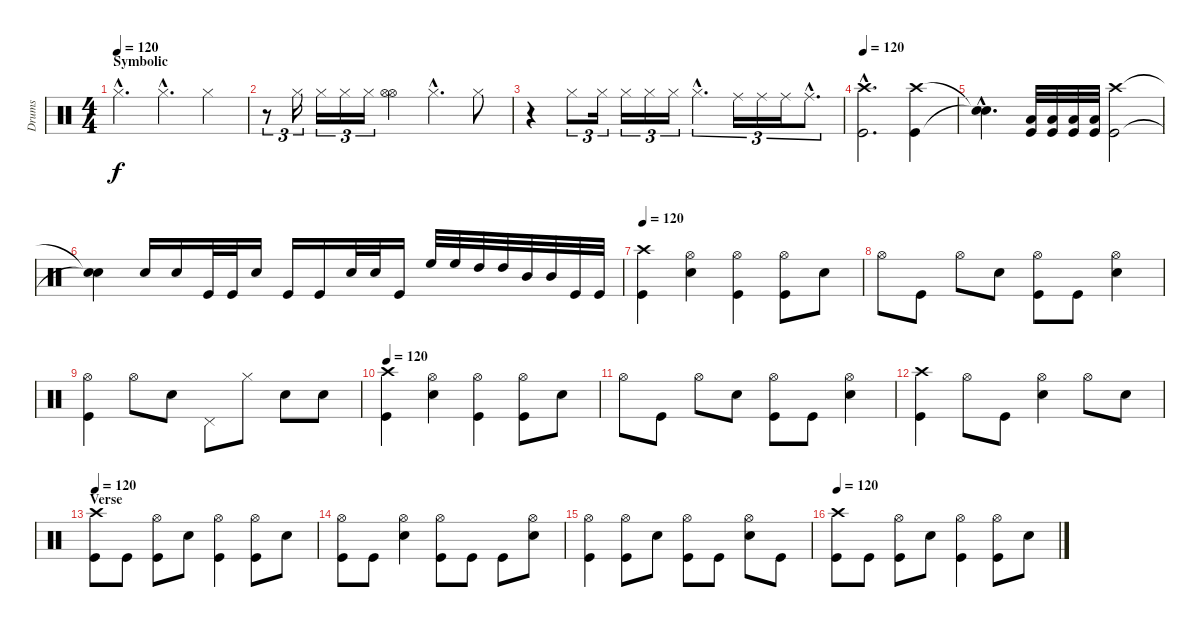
\track ("Drums" "Drums") {instrument percussion}
\staff {score}
\articulation defaults
\ts (4 4)
\section ("" "Symbolic")
\tempo 120
\clef neutral
\ks c "Hi-Hat (closed)"{hac}.4{d dy f} "Hi-Hat (closed)"{hac}.4{d} "Hi-Hat (closed)".4
|
r.8{tu (3 2)} "Hi-Hat (closed)".16{tu (3 2)} "Hi-Hat (closed)".16{tu (3 2)} "Hi-Hat (closed)".16{tu (3 2)} "Hi-Hat (closed)".16{tu (3 2)} ("Hi-Hat (open)" "Hi-Hat (open)").4 "Hi-Hat (closed)"{hac}.4{d} "Hi-Hat (closed)".8 |
r.4 "Hi-Hat (closed)".8{tu (3 2)} "Hi-Hat (closed)".16{tu (3 2)} "Hi-Hat (closed)".16{tu (3 2)} "Hi-Hat (closed)".16{tu (3 2)} "Hi-Hat (closed)".16{tu (3 2)} "Hi-Hat (closed)"{hac}.4{d tu (3 2)} "Ride (middle)".16{tu (3 2)} "Ride (middle)".16{tu (3 2)} "Ride (middle)".16{tu (3 2)} "Ride (middle)"{hac}.8{d tu (3 2)} |
\tempo 120
("Crash high (hit)"{hac} "Kick (hit)"{hac}).2{d} ("Crash high (hit)" "Kick (hit)").4 |
("Snare (hit)"{hac t} "Snare (hit)"{hac t}).4{d} ("Low Floor Tom (hit)" "Kick (hit)").32 ("Low Floor Tom (hit)" "Kick (hit)").32 ("Low Floor Tom (hit)" "Kick (hit)").32 ("Low Floor Tom (hit)" "Kick (hit)").32 ("Crash high (hit)" "Kick (hit)").2 |
("Snare (hit)"{t} "Snare (hit)"{t}).4 "Snare (hit) 2".16 "Snare (hit) 2".16 "Kick (hit)".32 "Kick (hit)".32 "Snare (hit) 2".16 "Kick (hit)".16 "Kick (hit)".16 "Snare (hit) 2".32 "Snare (hit) 2".32 "Kick (hit)".16 "High Floor Tom (hit)".32 "High Floor Tom (hit)".32 "High Tom (hit)".32 "High Tom (hit)".32 "Mid Tom (hit)".32 "Mid Tom (hit)".32 "Kick (hit)".32 "Kick (hit)".32 |
\tempo 120
("Crash high (hit)" "Kick (hit)").4 ("Hi-Hat (open)" "Snare (hit) 2").4 ("Hi-Hat (open)" "Kick (hit)").4 ("Hi-Hat (open)" "Kick (hit)").8 "Snare (hit) 2".8 |
"Hi-Hat (open)".8 "Kick (hit)".8 "Hi-Hat (open)".8 "Snare (hit) 2".8 ("Hi-Hat (open)" "Kick (hit)").8 "Kick (hit)".8 ("Hi-Hat (open)" "Snare (hit) 2").4 |
("Hi-Hat (open)" "Kick (hit)").4 "Hi-Hat (open)".8 "Snare (hit) 2".8 "Pedal Hi-Hat (hit)".8 "Hi-Hat (closed)".8 "Snare (hit) 2".8 "Snare (hit) 2".8 |
\tempo 120
("Crash high (hit)" "Kick (hit)").4 ("Hi-Hat (open)" "Snare (hit) 2").4 ("Hi-Hat (open)" "Kick (hit)").4 ("Hi-Hat (open)" "Kick (hit)").8 "Snare (hit) 2".8 |
"Hi-Hat (open)".8 "Kick (hit)".8 "Hi-Hat (open)".8 "Snare (hit) 2".8 ("Hi-Hat (open)" "Kick (hit)").8 "Kick (hit)".8 ("Hi-Hat (open)" "Snare (hit) 2").4 |
("Crash high (hit)" "Kick (hit)").4 "Hi-Hat (open)".8 "Kick (hit)".8 ("Hi-Hat (open)" "Snare (hit) 2").4 "Hi-Hat (open)".8 "Snare (hit) 2".8 |
\section ("" "Verse")
\tempo 120
("Crash high (hit)" "Kick (hit)").8 "Kick (hit)".8 ("Hi-Hat (open)" "Kick (hit)").8 "Snare (hit) 2".8 ("Hi-Hat (open)" "Kick (hit)").4 ("Hi-Hat (open)" "Kick (hit)").8 "Snare (hit) 2".8 |
("Hi-Hat (open)" "Kick (hit)").8 "Kick (hit)".8 ("Hi-Hat (open)" "Snare (hit) 2").4 ("Hi-Hat (open)" "Kick (hit)").8 "Kick (hit)".8 "Kick (hit)".8 ("Hi-Hat (open)" "Snare (hit) 2").8 |
("Hi-Hat (open)" "Kick (hit)").4 ("Hi-Hat (open)" "Kick (hit)").8 "Snare (hit) 2".8 ("Hi-Hat (open)" "Kick (hit)").8 "Kick (hit)".8 ("Hi-Hat (open)" "Snare (hit) 2").8 "Kick (hit)".8 |
\tempo 120
("Crash high (hit)" "Kick (hit)").8 "Kick (hit)".8 ("Hi-Hat (open)" "Kick (hit)").8 "Snare (hit) 2".8 ("Hi-Hat (open)" "Kick (hit)").4 ("Hi-Hat (open)" "Kick (hit)").8 "Snare (hit) 2".8
